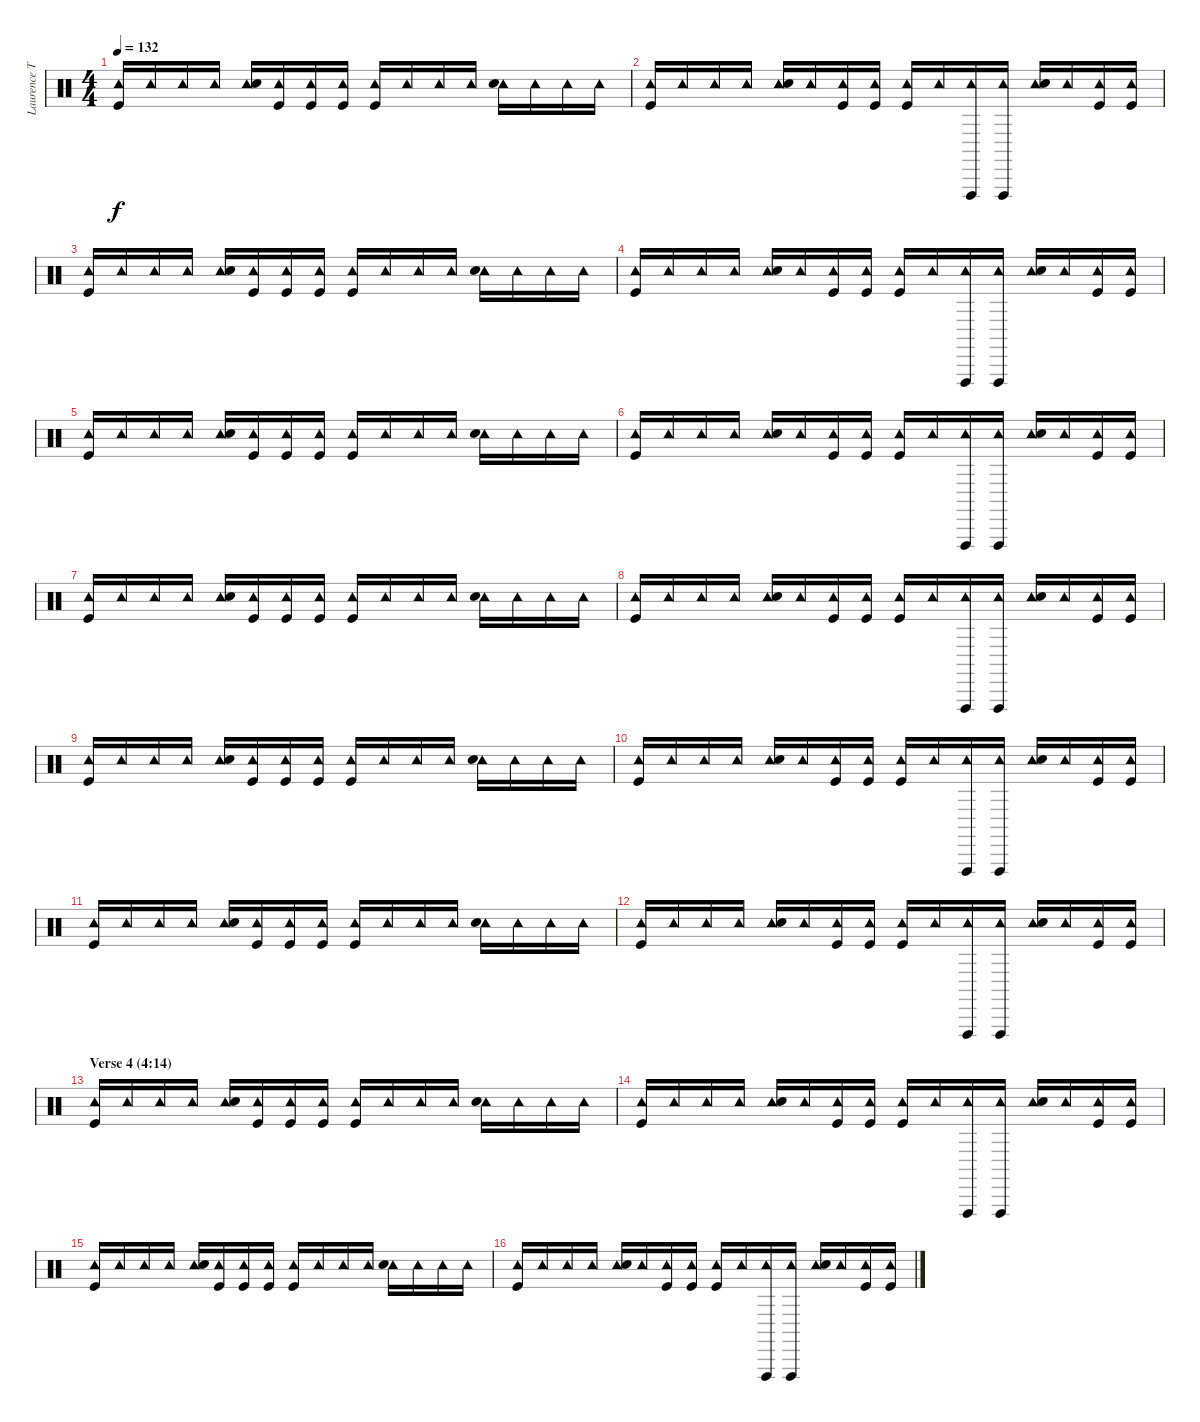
\track ("Laurence Tolhurst (drums)" "Laurence T") {instrument percussion}
\staff {score}
\articulation defaults
\ts (4 4)
\tempo 132
\clef neutral
\ks c
("Tambourine (hit)" "Kick (hit)").16{dy f} "Tambourine (hit)".16 "Tambourine (hit)".16 "Tambourine (hit)".16 ("Tambourine (hit)" "Snare (hit) 2").16 ("Tambourine (hit)" "Kick (hit)").16 ("Tambourine (hit)" "Kick (hit)").16 ("Tambourine (hit)" "Kick (hit)").16 ("Tambourine (hit)" "Kick (hit)").16 "Tambourine (hit)".16 "Tambourine (hit)".16 "Tambourine (hit)".16 ("Tambourine (hit)" "Snare (hit) 2").16 "Tambourine (hit)".16 "Tambourine (hit)".16 "Tambourine (hit)".16 |
("Tambourine (hit)" "Kick (hit)").16 "Tambourine (hit)".16 "Tambourine (hit)".16 "Tambourine (hit)".16 ("Tambourine (hit)" "Snare (hit) 2").16 "Tambourine (hit)".16 ("Tambourine (hit)" "Kick (hit)").16 ("Tambourine (hit)" "Kick (hit)").16 ("Tambourine (hit)" "Kick (hit)").16 "Tambourine (hit)".16 ("Tambourine (hit)" "Vibraslap (hit)").16 ("Tambourine (hit)" "Vibraslap (hit)").16 ("Tambourine (hit)" "Snare (hit) 2").16 "Tambourine (hit)".16 ("Tambourine (hit)" "Kick (hit)").16 ("Tambourine (hit)" "Kick (hit)").16 |
("Tambourine (hit)" "Kick (hit)").16 "Tambourine (hit)".16 "Tambourine (hit)".16 "Tambourine (hit)".16 ("Tambourine (hit)" "Snare (hit) 2").16 ("Tambourine (hit)" "Kick (hit)").16 ("Tambourine (hit)" "Kick (hit)").16 ("Tambourine (hit)" "Kick (hit)").16 ("Tambourine (hit)" "Kick (hit)").16 "Tambourine (hit)".16 "Tambourine (hit)".16 "Tambourine (hit)".16 ("Tambourine (hit)" "Snare (hit) 2").16 "Tambourine (hit)".16 "Tambourine (hit)".16 "Tambourine (hit)".16 |
("Tambourine (hit)" "Kick (hit)").16 "Tambourine (hit)".16 "Tambourine (hit)".16 "Tambourine (hit)".16 ("Tambourine (hit)" "Snare (hit) 2").16 "Tambourine (hit)".16 ("Tambourine (hit)" "Kick (hit)").16 ("Tambourine (hit)" "Kick (hit)").16 ("Tambourine (hit)" "Kick (hit)").16 "Tambourine (hit)".16 ("Tambourine (hit)" "Vibraslap (hit)").16 ("Tambourine (hit)" "Vibraslap (hit)").16 ("Tambourine (hit)" "Snare (hit) 2").16 "Tambourine (hit)".16 ("Tambourine (hit)" "Kick (hit)").16 ("Tambourine (hit)" "Kick (hit)").16 |
("Tambourine (hit)" "Kick (hit)").16 "Tambourine (hit)".16 "Tambourine (hit)".16 "Tambourine (hit)".16 ("Tambourine (hit)" "Snare (hit) 2").16 ("Tambourine (hit)" "Kick (hit)").16 ("Tambourine (hit)" "Kick (hit)").16 ("Tambourine (hit)" "Kick (hit)").16 ("Tambourine (hit)" "Kick (hit)").16 "Tambourine (hit)".16 "Tambourine (hit)".16 "Tambourine (hit)".16 ("Tambourine (hit)" "Snare (hit) 2").16 "Tambourine (hit)".16 "Tambourine (hit)".16 "Tambourine (hit)".16 |
("Tambourine (hit)" "Kick (hit)").16 "Tambourine (hit)".16 "Tambourine (hit)".16 "Tambourine (hit)".16 ("Tambourine (hit)" "Snare (hit) 2").16 "Tambourine (hit)".16 ("Tambourine (hit)" "Kick (hit)").16 ("Tambourine (hit)" "Kick (hit)").16 ("Tambourine (hit)" "Kick (hit)").16 "Tambourine (hit)".16 ("Tambourine (hit)" "Vibraslap (hit)").16 ("Tambourine (hit)" "Vibraslap (hit)").16 ("Tambourine (hit)" "Snare (hit) 2").16 "Tambourine (hit)".16 ("Tambourine (hit)" "Kick (hit)").16 ("Tambourine (hit)" "Kick (hit)").16 |
("Tambourine (hit)" "Kick (hit)").16 "Tambourine (hit)".16 "Tambourine (hit)".16 "Tambourine (hit)".16 ("Tambourine (hit)" "Snare (hit) 2").16 ("Tambourine (hit)" "Kick (hit)").16 ("Tambourine (hit)" "Kick (hit)").16 ("Tambourine (hit)" "Kick (hit)").16 ("Tambourine (hit)" "Kick (hit)").16 "Tambourine (hit)".16 "Tambourine (hit)".16 "Tambourine (hit)".16 ("Tambourine (hit)" "Snare (hit) 2").16 "Tambourine (hit)".16 "Tambourine (hit)".16 "Tambourine (hit)".16 |
("Tambourine (hit)" "Kick (hit)").16 "Tambourine (hit)".16 "Tambourine (hit)".16 "Tambourine (hit)".16 ("Tambourine (hit)" "Snare (hit) 2").16 "Tambourine (hit)".16 ("Tambourine (hit)" "Kick (hit)").16 ("Tambourine (hit)" "Kick (hit)").16 ("Tambourine (hit)" "Kick (hit)").16 "Tambourine (hit)".16 ("Tambourine (hit)" "Vibraslap (hit)").16 ("Tambourine (hit)" "Vibraslap (hit)").16 ("Tambourine (hit)" "Snare (hit) 2").16 "Tambourine (hit)".16 ("Tambourine (hit)" "Kick (hit)").16 ("Tambourine (hit)" "Kick (hit)").16 |
("Tambourine (hit)" "Kick (hit)").16 "Tambourine (hit)".16 "Tambourine (hit)".16 "Tambourine (hit)".16 ("Tambourine (hit)" "Snare (hit) 2").16 ("Tambourine (hit)" "Kick (hit)").16 ("Tambourine (hit)" "Kick (hit)").16 ("Tambourine (hit)" "Kick (hit)").16 ("Tambourine (hit)" "Kick (hit)").16 "Tambourine (hit)".16 "Tambourine (hit)".16 "Tambourine (hit)".16 ("Tambourine (hit)" "Snare (hit) 2").16 "Tambourine (hit)".16 "Tambourine (hit)".16 "Tambourine (hit)".16 |
("Tambourine (hit)" "Kick (hit)").16 "Tambourine (hit)".16 "Tambourine (hit)".16 "Tambourine (hit)".16 ("Tambourine (hit)" "Snare (hit) 2").16 "Tambourine (hit)".16 ("Tambourine (hit)" "Kick (hit)").16 ("Tambourine (hit)" "Kick (hit)").16 ("Tambourine (hit)" "Kick (hit)").16 "Tambourine (hit)".16 ("Tambourine (hit)" "Vibraslap (hit)").16 ("Tambourine (hit)" "Vibraslap (hit)").16 ("Tambourine (hit)" "Snare (hit) 2").16 "Tambourine (hit)".16 ("Tambourine (hit)" "Kick (hit)").16 ("Tambourine (hit)" "Kick (hit)").16 |
("Tambourine (hit)" "Kick (hit)").16 "Tambourine (hit)".16 "Tambourine (hit)".16 "Tambourine (hit)".16 ("Tambourine (hit)" "Snare (hit) 2").16 ("Tambourine (hit)" "Kick (hit)").16 ("Tambourine (hit)" "Kick (hit)").16 ("Tambourine (hit)" "Kick (hit)").16 ("Tambourine (hit)" "Kick (hit)").16 "Tambourine (hit)".16 "Tambourine (hit)".16 "Tambourine (hit)".16 ("Tambourine (hit)" "Snare (hit) 2").16 "Tambourine (hit)".16 "Tambourine (hit)".16 "Tambourine (hit)".16 |
("Tambourine (hit)" "Kick (hit)").16 "Tambourine (hit)".16 "Tambourine (hit)".16 "Tambourine (hit)".16 ("Tambourine (hit)" "Snare (hit) 2").16 "Tambourine (hit)".16 ("Tambourine (hit)" "Kick (hit)").16 ("Tambourine (hit)" "Kick (hit)").16 ("Tambourine (hit)" "Kick (hit)").16 "Tambourine (hit)".16 ("Tambourine (hit)" "Vibraslap (hit)").16 ("Tambourine (hit)" "Vibraslap (hit)").16 ("Tambourine (hit)" "Snare (hit) 2").16 "Tambourine (hit)".16 ("Tambourine (hit)" "Kick (hit)").16 ("Tambourine (hit)" "Kick (hit)").16 |
\section ("" "Verse 4 (4:14)")
("Tambourine (hit)" "Kick (hit)").16 "Tambourine (hit)".16 "Tambourine (hit)".16 "Tambourine (hit)".16 ("Tambourine (hit)" "Snare (hit) 2").16 ("Tambourine (hit)" "Kick (hit)").16 ("Tambourine (hit)" "Kick (hit)").16 ("Tambourine (hit)" "Kick (hit)").16 ("Tambourine (hit)" "Kick (hit)").16 "Tambourine (hit)".16 "Tambourine (hit)".16 "Tambourine (hit)".16 ("Tambourine (hit)" "Snare (hit) 2").16 "Tambourine (hit)".16 "Tambourine (hit)".16 "Tambourine (hit)".16 |
("Tambourine (hit)" "Kick (hit)").16 "Tambourine (hit)".16 "Tambourine (hit)".16 "Tambourine (hit)".16 ("Tambourine (hit)" "Snare (hit) 2").16 "Tambourine (hit)".16 ("Tambourine (hit)" "Kick (hit)").16 ("Tambourine (hit)" "Kick (hit)").16 ("Tambourine (hit)" "Kick (hit)").16 "Tambourine (hit)".16 ("Tambourine (hit)" "Vibraslap (hit)").16 ("Tambourine (hit)" "Vibraslap (hit)").16 ("Tambourine (hit)" "Snare (hit) 2").16 "Tambourine (hit)".16 ("Tambourine (hit)" "Kick (hit)").16 ("Tambourine (hit)" "Kick (hit)").16 |
("Tambourine (hit)" "Kick (hit)").16 "Tambourine (hit)".16 "Tambourine (hit)".16 "Tambourine (hit)".16 ("Tambourine (hit)" "Snare (hit) 2").16 ("Tambourine (hit)" "Kick (hit)").16 ("Tambourine (hit)" "Kick (hit)").16 ("Tambourine (hit)" "Kick (hit)").16 ("Tambourine (hit)" "Kick (hit)").16 "Tambourine (hit)".16 "Tambourine (hit)".16 "Tambourine (hit)".16 ("Tambourine (hit)" "Snare (hit) 2").16 "Tambourine (hit)".16 "Tambourine (hit)".16 "Tambourine (hit)".16 |
("Tambourine (hit)" "Kick (hit)").16 "Tambourine (hit)".16 "Tambourine (hit)".16 "Tambourine (hit)".16 ("Tambourine (hit)" "Snare (hit) 2").16 "Tambourine (hit)".16 ("Tambourine (hit)" "Kick (hit)").16 ("Tambourine (hit)" "Kick (hit)").16 ("Tambourine (hit)" "Kick (hit)").16 "Tambourine (hit)".16 ("Tambourine (hit)" "Vibraslap (hit)").16 ("Tambourine (hit)" "Vibraslap (hit)").16 ("Tambourine (hit)" "Snare (hit) 2").16 "Tambourine (hit)".16 ("Tambourine (hit)" "Kick (hit)").16 ("Tambourine (hit)" "Kick (hit)").16
